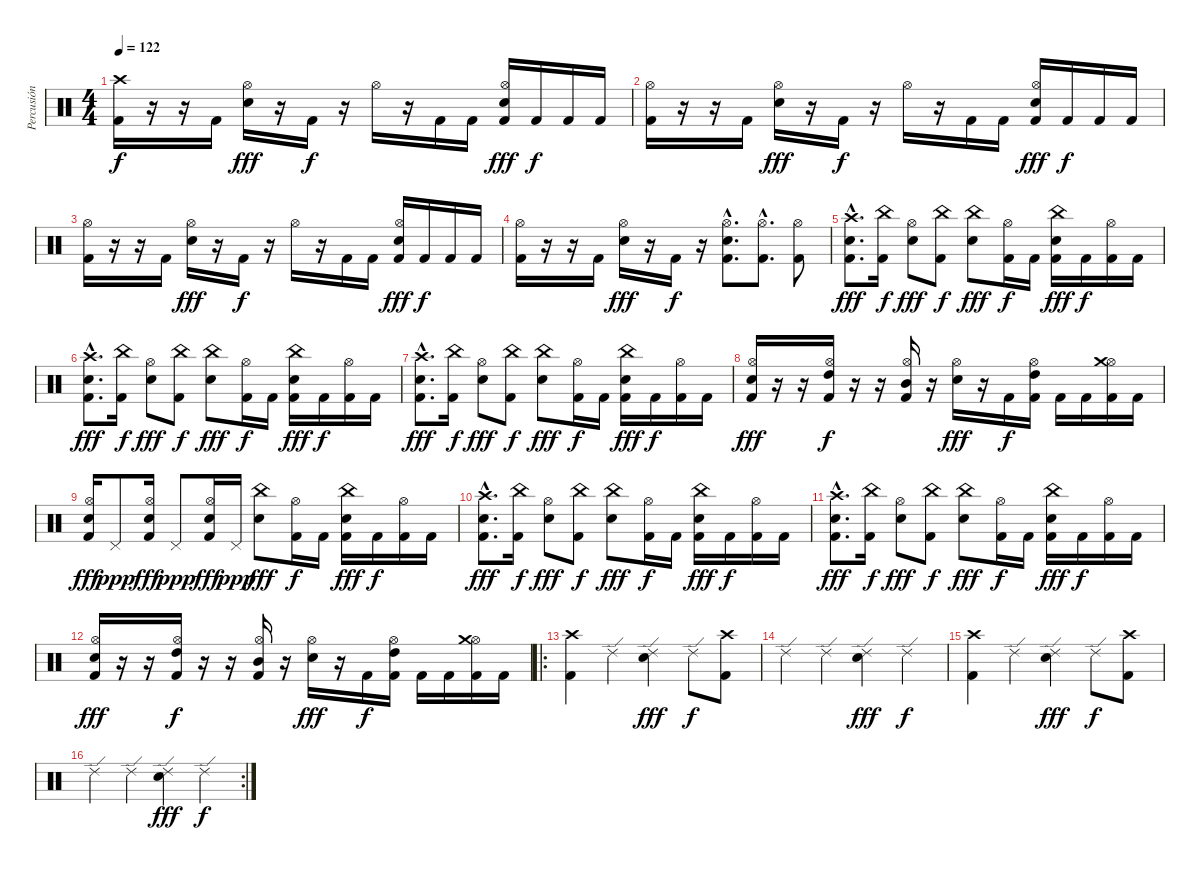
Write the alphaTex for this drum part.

\track ("Percusión" "Percusión") {instrument percussion}
\staff {score}
\articulation defaults
\ts (4 4)
\tempo 122
\clef neutral
\ks c
("Crash high (hit)" "Kick (hit) 2").16{dy f} r.16 r.16 "Kick (hit) 2".16 ("Hi-Hat (open)" "Electric Snare (hit)").16{dy fff} r.16 "Kick (hit) 2".16{dy f} r.16 "Hi-Hat (open)".16 r.16 "Kick (hit) 2".16 "Kick (hit) 2".16 ("Hi-Hat (open)" "Electric Snare (hit)" "Kick (hit) 2").16{dy fff} "Kick (hit) 2".16{dy f} "Kick (hit) 2".16 "Kick (hit) 2".16 |
("Hi-Hat (open)" "Kick (hit) 2").16 r.16 r.16 "Kick (hit) 2".16 ("Hi-Hat (open)" "Electric Snare (hit)").16{dy fff} r.16 "Kick (hit) 2".16{dy f} r.16 "Hi-Hat (open)".16 r.16 "Kick (hit) 2".16 "Kick (hit) 2".16 ("Hi-Hat (open)" "Electric Snare (hit)" "Kick (hit) 2").16{dy fff} "Kick (hit) 2".16{dy f} "Kick (hit) 2".16 "Kick (hit) 2".16 |
("Hi-Hat (open)" "Kick (hit) 2").16 r.16 r.16 "Kick (hit) 2".16 ("Hi-Hat (open)" "Electric Snare (hit)").16{dy fff} r.16 "Kick (hit) 2".16{dy f} r.16 "Hi-Hat (open)".16 r.16 "Kick (hit) 2".16 "Kick (hit) 2".16 ("Hi-Hat (open)" "Electric Snare (hit)" "Kick (hit) 2").16{dy fff} "Kick (hit) 2".16{dy f} "Kick (hit) 2".16 "Kick (hit) 2".16 |
("Hi-Hat (open)" "Kick (hit) 2").16 r.16 r.16 "Kick (hit) 2".16 ("Hi-Hat (open)" "Electric Snare (hit)").16{dy fff} r.16 "Kick (hit) 2".16{dy f} r.16 ("Hi-Hat (open)"{hac} "Electric Snare (hit)"{hac} "Kick (hit) 2"{hac}).8{d} ("Hi-Hat (open)"{hac} "Kick (hit) 2"{hac}).8{d} ("Hi-Hat (open)" "Kick (hit) 2").8 |
("Crash high (hit)"{hac} "Electric Snare (hit)"{hac} "Kick (hit) 2"{hac}).8{d dy fff} ("China (hit)" "Kick (hit) 2").16{dy f} ("Hi-Hat (open)" "Electric Snare (hit)").8{dy fff} ("China (hit)" "Kick (hit) 2").8{dy f} ("China (hit)" "Electric Snare (hit)").8{dy fff} ("Hi-Hat (open)" "Kick (hit) 2").16{dy f} "Kick (hit) 2".16 ("China (hit)" "Electric Snare (hit)" "Kick (hit) 2").16{dy fff} "Kick (hit) 2".16{dy f} ("Hi-Hat (open)" "Kick (hit) 2").16 "Kick (hit) 2".16 |
("Crash high (hit)"{hac} "Electric Snare (hit)"{hac} "Kick (hit) 2"{hac}).8{d dy fff} ("China (hit)" "Kick (hit) 2").16{dy f} ("Hi-Hat (open)" "Electric Snare (hit)").8{dy fff} ("China (hit)" "Kick (hit) 2").8{dy f} ("China (hit)" "Electric Snare (hit)").8{dy fff} ("Hi-Hat (open)" "Kick (hit) 2").16{dy f} "Kick (hit) 2".16 ("China (hit)" "Electric Snare (hit)" "Kick (hit) 2").16{dy fff} "Kick (hit) 2".16{dy f} ("Hi-Hat (open)" "Kick (hit) 2").16 "Kick (hit) 2".16 |
("Crash high (hit)"{hac} "Electric Snare (hit)"{hac} "Kick (hit) 2"{hac}).8{d dy fff} ("China (hit)" "Kick (hit) 2").16{dy f} ("Hi-Hat (open)" "Electric Snare (hit)").8{dy fff} ("China (hit)" "Kick (hit) 2").8{dy f} ("China (hit)" "Electric Snare (hit)").8{dy fff} ("Hi-Hat (open)" "Kick (hit) 2").16{dy f} "Kick (hit) 2".16 ("China (hit)" "Electric Snare (hit)" "Kick (hit) 2").16{dy fff} "Kick (hit) 2".16{dy f} ("Hi-Hat (open)" "Kick (hit) 2").16 "Kick (hit) 2".16 |
("Hi-Hat (open)" "Electric Snare (hit)" "Kick (hit) 2").16{dy fff} r.16 r.16 ("Hi-Hat (open)" "High Tom (hit)" "Kick (hit) 2").16{dy f} r.16 r.16 ("Hi-Hat (open)" "Mid Tom (hit)" "Kick (hit) 2").16 r.16 ("Hi-Hat (open)" "Electric Snare (hit)").16{dy fff} r.16 "Kick (hit) 2".16{dy f} ("Hi-Hat (open)" "High Tom (hit)" "Kick (hit) 2").16 "Kick (hit) 2".16 "Kick (hit) 2".16 ("Hi-Hat (open)" "Crash medium (hit)" "Kick (hit) 2").16 "Kick (hit) 2".16 |
("Hi-Hat (open)" "Electric Snare (hit)" "Kick (hit) 2").16{dy fff} "Pedal Hi-Hat (hit)".8{dy ppp} ("Hi-Hat (open)" "Electric Snare (hit)" "Kick (hit) 2").16{dy fff} "Pedal Hi-Hat (hit)".8{dy ppp} ("Hi-Hat (open)" "Electric Snare (hit)" "Kick (hit) 2").16{dy fff} "Pedal Hi-Hat (hit)".16{dy ppp} ("China (hit)" "Electric Snare (hit)").8{dy fff} ("Hi-Hat (open)" "Kick (hit) 2").16{dy f} "Kick (hit) 2".16 ("China (hit)" "Electric Snare (hit)" "Kick (hit) 2").16{dy fff} "Kick (hit) 2".16{dy f} ("Hi-Hat (open)" "Kick (hit) 2").16 "Kick (hit) 2".16 |
("Crash high (hit)"{hac} "Electric Snare (hit)"{hac} "Kick (hit) 2"{hac}).8{d dy fff} ("China (hit)" "Kick (hit) 2").16{dy f} ("Hi-Hat (open)" "Electric Snare (hit)").8{dy fff} ("China (hit)" "Kick (hit) 2").8{dy f} ("China (hit)" "Electric Snare (hit)").8{dy fff} ("Hi-Hat (open)" "Kick (hit) 2").16{dy f} "Kick (hit) 2".16 ("China (hit)" "Electric Snare (hit)" "Kick (hit) 2").16{dy fff} "Kick (hit) 2".16{dy f} ("Hi-Hat (open)" "Kick (hit) 2").16 "Kick (hit) 2".16 |
("Crash high (hit)"{hac} "Electric Snare (hit)"{hac} "Kick (hit) 2"{hac}).8{d dy fff} ("China (hit)" "Kick (hit) 2").16{dy f} ("Hi-Hat (open)" "Electric Snare (hit)").8{dy fff} ("China (hit)" "Kick (hit) 2").8{dy f} ("China (hit)" "Electric Snare (hit)").8{dy fff} ("Hi-Hat (open)" "Kick (hit) 2").16{dy f} "Kick (hit) 2".16 ("China (hit)" "Electric Snare (hit)" "Kick (hit) 2").16{dy fff} "Kick (hit) 2".16{dy f} ("Hi-Hat (open)" "Kick (hit) 2").16 "Kick (hit) 2".16 |
("Hi-Hat (open)" "Electric Snare (hit)" "Kick (hit) 2").16{dy fff} r.16 r.16 ("Hi-Hat (open)" "High Tom (hit)" "Kick (hit) 2").16{dy f} r.16 r.16 ("Hi-Hat (open)" "Mid Tom (hit)" "Kick (hit) 2").16 r.16 ("Hi-Hat (open)" "Electric Snare (hit)").16{dy fff} r.16 "Kick (hit) 2".16{dy f} ("Hi-Hat (open)" "High Tom (hit)" "Kick (hit) 2").16 "Kick (hit) 2".16 "Kick (hit) 2".16 ("Hi-Hat (open)" "Crash medium (hit)" "Kick (hit) 2").16 "Kick (hit) 2".16 |
\ro
("Crash high (hit)" "Kick (hit) 2").4 "Ride (edge) 2".4 ("Ride (edge) 2" "Electric Snare (hit)").4{dy fff} "Ride (edge) 2".8{dy f} ("Crash high (hit)" "Kick (hit) 2").8 |
"Ride (edge) 2".4 "Ride (edge) 2".4 ("Ride (edge) 2" "Electric Snare (hit)").4{dy fff} "Ride (edge) 2".4{dy f} |
("Crash high (hit)" "Kick (hit) 2").4 "Ride (edge) 2".4 ("Ride (edge) 2" "Electric Snare (hit)").4{dy fff} "Ride (edge) 2".8{dy f} ("Crash high (hit)" "Kick (hit) 2").8 |
\rc 2 "Ride (edge) 2".4 "Ride (edge) 2".4
("Ride (edge) 2" "Electric Snare (hit)").4{dy fff} "Ride (edge) 2".4{dy f}
